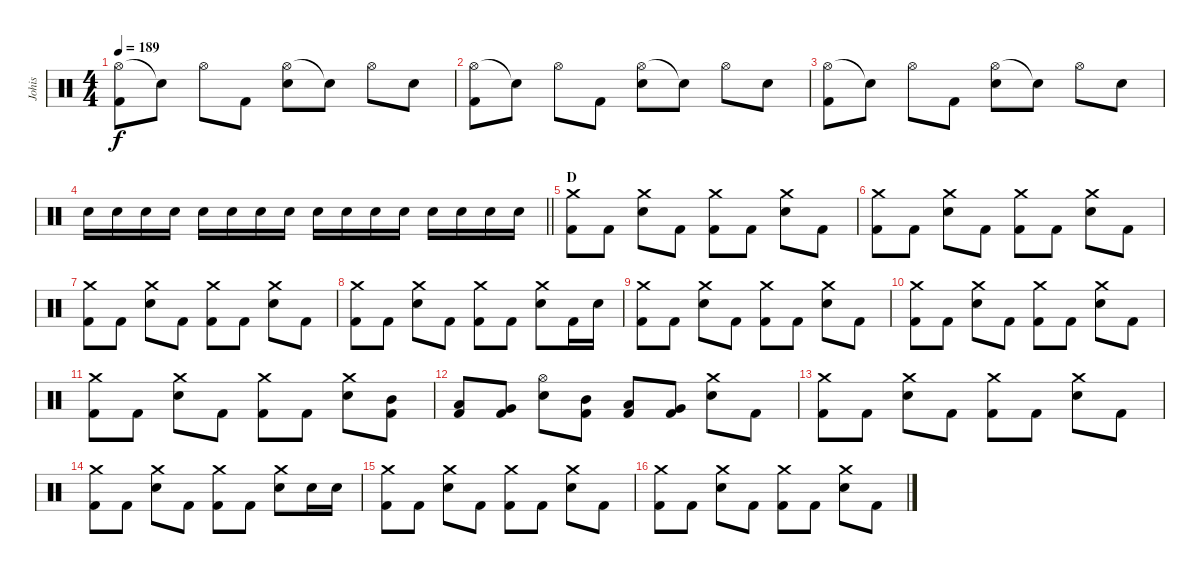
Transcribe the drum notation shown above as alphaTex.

\track ("Johis" "Johis") {instrument percussion}
\staff {score}
\articulation defaults
\ts (4 4)
\tempo 189
\clef neutral
\ks c
("Hi-Hat (open)" "Kick (hit) 2").8{dy f} "Snare (hit)"{t}.8 "Hi-Hat (open)".8 "Kick (hit) 2".8 ("Hi-Hat (open)" "Electric Snare (hit)").8 "Snare (hit)"{t}.8 "Hi-Hat (open)".8 "Electric Snare (hit)".8 |
("Hi-Hat (open)" "Kick (hit) 2").8 "Snare (hit)"{t}.8 "Hi-Hat (open)".8 "Kick (hit) 2".8 ("Hi-Hat (open)" "Electric Snare (hit)").8 "Snare (hit)"{t}.8 "Hi-Hat (open)".8 "Electric Snare (hit)".8 |
("Hi-Hat (open)" "Kick (hit) 2").8 "Snare (hit)"{t}.8 "Hi-Hat (open)".8 "Kick (hit) 2".8 ("Hi-Hat (open)" "Electric Snare (hit)").8 "Snare (hit)"{t}.8 "Hi-Hat (open)".8 "Electric Snare (hit)".8 |
\barLineRight lightlight "Electric Snare (hit)".16 "Electric Snare (hit)".16 "Electric Snare (hit)".16 "Electric Snare (hit)".16 "Electric Snare (hit)".16 "Electric Snare (hit)".16 "Electric Snare (hit)".16 "Electric Snare (hit)".16 "Electric Snare (hit)".16 "Electric Snare (hit)".16 "Electric Snare (hit)".16 "Electric Snare (hit)".16 "Electric Snare (hit)".16 "Electric Snare (hit)".16 "Electric Snare (hit)".16 "Electric Snare (hit)".16
|
\section ("" "D")
("Crash medium (hit)" "Kick (hit) 2").8 "Kick (hit) 2".8 ("Crash medium (hit)" "Electric Snare (hit)").8 "Kick (hit) 2".8 ("Crash medium (hit)" "Kick (hit) 2").8 "Kick (hit) 2".8 ("Crash medium (hit)" "Electric Snare (hit)").8 "Kick (hit) 2".8 |
("Crash medium (hit)" "Kick (hit) 2").8 "Kick (hit) 2".8 ("Crash medium (hit)" "Electric Snare (hit)").8 "Kick (hit) 2".8 ("Crash medium (hit)" "Kick (hit) 2").8 "Kick (hit) 2".8 ("Crash medium (hit)" "Electric Snare (hit)").8 "Kick (hit) 2".8 |
("Crash medium (hit)" "Kick (hit) 2").8 "Kick (hit) 2".8 ("Crash medium (hit)" "Electric Snare (hit)").8 "Kick (hit) 2".8 ("Crash medium (hit)" "Kick (hit) 2").8 "Kick (hit) 2".8 ("Crash medium (hit)" "Electric Snare (hit)").8 "Kick (hit) 2".8 |
("Crash medium (hit)" "Kick (hit) 2").8 "Kick (hit) 2".8 ("Crash medium (hit)" "Electric Snare (hit)").8 "Kick (hit) 2".8 ("Crash medium (hit)" "Kick (hit) 2").8 "Kick (hit) 2".8 ("Crash medium (hit)" "Electric Snare (hit)").8 "Kick (hit) 2".16 "Electric Snare (hit)".16 |
("Crash medium (hit)" "Kick (hit) 2").8 "Kick (hit) 2".8 ("Crash medium (hit)" "Electric Snare (hit)").8 "Kick (hit) 2".8 ("Crash medium (hit)" "Kick (hit) 2").8 "Kick (hit) 2".8 ("Crash medium (hit)" "Electric Snare (hit)").8 "Kick (hit) 2".8 |
("Crash medium (hit)" "Kick (hit) 2").8 "Kick (hit) 2".8 ("Crash medium (hit)" "Electric Snare (hit)").8 "Kick (hit) 2".8 ("Crash medium (hit)" "Kick (hit) 2").8 "Kick (hit) 2".8 ("Crash medium (hit)" "Electric Snare (hit)").8 "Kick (hit) 2".8 |
("Crash medium (hit)" "Kick (hit) 2").8 "Kick (hit) 2".8 ("Crash medium (hit)" "Electric Snare (hit)").8 "Kick (hit) 2".8 ("Crash medium (hit)" "Kick (hit) 2").8 "Kick (hit) 2".8 ("Crash medium (hit)" "Electric Snare (hit)").8 ("Mid Tom (hit)" "Kick (hit) 2").8 |
("Low Tom (hit)" "Kick (hit) 2").8 ("Very Low Tom (hit)" "Kick (hit) 2").8 ("Hi-Hat (open)" "Electric Snare (hit)").8 ("Mid Tom (hit)" "Kick (hit) 2").8 ("Low Tom (hit)" "Kick (hit) 2").8 ("Very Low Tom (hit)" "Kick (hit) 2").8 ("Crash medium (hit)" "Electric Snare (hit)").8 "Kick (hit) 2".8 |
("Crash medium (hit)" "Kick (hit) 2").8 "Kick (hit) 2".8 ("Crash medium (hit)" "Electric Snare (hit)").8 "Kick (hit) 2".8 ("Crash medium (hit)" "Kick (hit) 2").8 "Kick (hit) 2".8 ("Crash medium (hit)" "Electric Snare (hit)").8 "Kick (hit) 2".8 |
("Crash medium (hit)" "Kick (hit) 2").8 "Kick (hit) 2".8 ("Crash medium (hit)" "Electric Snare (hit)").8 "Kick (hit) 2".8 ("Crash medium (hit)" "Kick (hit) 2").8 "Kick (hit) 2".8 ("Crash medium (hit)" "Electric Snare (hit)").8 "Electric Snare (hit)".16 "Electric Snare (hit)".16 |
("Crash medium (hit)" "Kick (hit) 2").8 "Kick (hit) 2".8 ("Crash medium (hit)" "Electric Snare (hit)").8 "Kick (hit) 2".8 ("Crash medium (hit)" "Kick (hit) 2").8 "Kick (hit) 2".8 ("Crash medium (hit)" "Electric Snare (hit)").8 "Kick (hit) 2".8 |
("Crash medium (hit)" "Kick (hit) 2").8 "Kick (hit) 2".8 ("Crash medium (hit)" "Electric Snare (hit)").8 "Kick (hit) 2".8 ("Crash medium (hit)" "Kick (hit) 2").8 "Kick (hit) 2".8 ("Crash medium (hit)" "Electric Snare (hit)").8 "Kick (hit) 2".8
